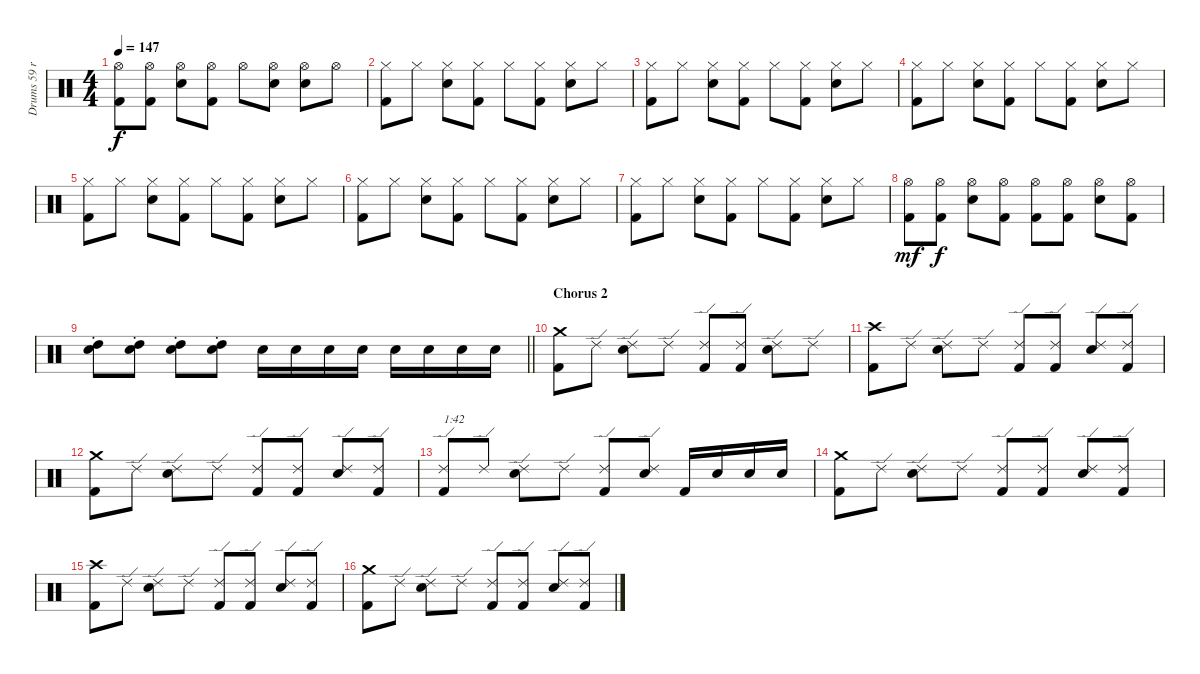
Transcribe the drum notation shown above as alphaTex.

\track ("Drums 59 ride" "Drums 59 r") {mute instrument percussion}
\staff {score}
\articulation defaults
\ts (4 4)
\tempo 147
\clef neutral
\ks c
("Hi-Hat (open)" "Kick (hit) 2").8{dy f} ("Hi-Hat (open)" "Kick (hit) 2").8 ("Hi-Hat (open)" "Snare (hit) 2").8 ("Hi-Hat (open)" "Kick (hit) 2").8 "Hi-Hat (open)".8 ("Hi-Hat (open)" "Snare (hit) 2").8 ("Hi-Hat (open)" "Snare (hit) 2").8 "Hi-Hat (open)".8 |
("Hi-Hat (closed)" "Kick (hit) 2").8 "Hi-Hat (closed)".8 ("Hi-Hat (closed)" "Snare (hit) 2").8 ("Hi-Hat (closed)" "Kick (hit) 2").8 "Hi-Hat (closed)".8 ("Hi-Hat (closed)" "Kick (hit) 2").8 ("Hi-Hat (closed)" "Snare (hit) 2").8 "Hi-Hat (closed)".8 |
("Hi-Hat (closed)" "Kick (hit) 2").8 "Hi-Hat (closed)".8 ("Hi-Hat (closed)" "Snare (hit) 2").8 ("Hi-Hat (closed)" "Kick (hit) 2").8 "Hi-Hat (closed)".8 ("Hi-Hat (closed)" "Kick (hit) 2").8 ("Hi-Hat (closed)" "Snare (hit) 2").8 "Hi-Hat (closed)".8 |
("Hi-Hat (closed)" "Kick (hit) 2").8 "Hi-Hat (closed)".8 ("Hi-Hat (closed)" "Snare (hit) 2").8 ("Hi-Hat (closed)" "Kick (hit) 2").8 "Hi-Hat (closed)".8 ("Hi-Hat (closed)" "Kick (hit) 2").8 ("Hi-Hat (closed)" "Snare (hit) 2").8 "Hi-Hat (closed)".8 |
("Hi-Hat (closed)" "Kick (hit) 2").8 "Hi-Hat (closed)".8 ("Hi-Hat (closed)" "Snare (hit) 2").8 ("Hi-Hat (closed)" "Kick (hit) 2").8 "Hi-Hat (closed)".8 ("Hi-Hat (closed)" "Kick (hit) 2").8 ("Hi-Hat (closed)" "Snare (hit) 2").8 "Hi-Hat (closed)".8 |
("Hi-Hat (closed)" "Kick (hit) 2").8 "Hi-Hat (closed)".8 ("Hi-Hat (closed)" "Snare (hit) 2").8 ("Hi-Hat (closed)" "Kick (hit) 2").8 "Hi-Hat (closed)".8 ("Hi-Hat (closed)" "Kick (hit) 2").8 ("Hi-Hat (closed)" "Snare (hit) 2").8 "Hi-Hat (closed)".8 |
("Hi-Hat (closed)" "Kick (hit) 2").8 "Hi-Hat (closed)".8 ("Hi-Hat (closed)" "Snare (hit) 2").8 ("Hi-Hat (closed)" "Kick (hit) 2").8 "Hi-Hat (closed)".8 ("Hi-Hat (closed)" "Kick (hit) 2").8 ("Hi-Hat (closed)" "Snare (hit) 2").8 "Hi-Hat (closed)".8 |
("Hi-Hat (open)" "Kick (hit) 2").8{dy mf} ("Hi-Hat (open)" "Kick (hit) 2").8{dy f} ("Hi-Hat (open)" "Snare (hit) 2").8 ("Hi-Hat (open)" "Kick (hit) 2").8 ("Hi-Hat (open)" "Kick (hit) 2").8 ("Hi-Hat (open)" "Kick (hit) 2").8 ("Hi-Hat (open)" "Snare (hit) 2").8 ("Hi-Hat (open)" "Kick (hit) 2").8 |
\barLineRight lightlight
("High Tom (hit)" "Snare (hit) 2"{st}).8 ("High Tom (hit)" "Snare (hit) 2"{st}).8 ("High Tom (hit)" "Snare (hit) 2"{st}).8 ("High Tom (hit)" "Snare (hit) 2"{st}).8 "Snare (hit) 2".16 "Snare (hit) 2".16 "Snare (hit) 2".16 "Snare (hit) 2".16 "Snare (hit) 2".16 "Snare (hit) 2".16 "Snare (hit) 2".16 "Snare (hit) 2".16 |
\section ("" "Chorus 2")
("Crash medium (hit)" "Kick (hit) 2").8 "Ride (edge) 2".8 ("Ride (edge) 2" "Snare (hit) 2").8 "Ride (edge) 2".8 ("Ride (edge) 2" "Kick (hit) 2").8 ("Ride (edge) 2" "Kick (hit) 2").8 ("Ride (edge) 2" "Snare (hit) 2").8 "Ride (edge) 2".8 |
("Crash high (hit)" "Kick (hit) 2").8 "Ride (edge) 2".8 ("Ride (edge) 2" "Snare (hit) 2").8 "Ride (edge) 2".8 ("Ride (edge) 2" "Kick (hit) 2").8 ("Ride (edge) 2" "Kick (hit) 2").8 ("Ride (edge) 2" "Snare (hit) 2").8 ("Ride (edge) 2" "Kick (hit) 2").8 |
("Crash medium (hit)" "Kick (hit) 2").8 "Ride (edge) 2".8 ("Ride (edge) 2" "Snare (hit) 2").8 "Ride (edge) 2".8 ("Ride (edge) 2" "Kick (hit) 2").8 ("Ride (edge) 2" "Kick (hit) 2").8 ("Ride (edge) 2" "Snare (hit) 2").8 ("Ride (edge) 2" "Kick (hit) 2").8 |
("Ride (edge) 2" "Kick (hit) 2").8{txt "1:42"} "Ride (edge) 2".8 ("Ride (edge) 2" "Snare (hit) 2").8 "Ride (edge) 2".8 ("Ride (edge) 2" "Kick (hit) 2").8 ("Ride (edge) 2" "Snare (hit) 2").8 "Kick (hit) 2".16 "Snare (hit) 2".16 "Snare (hit) 2".16 "Snare (hit) 2".16 |
("Crash medium (hit)" "Kick (hit) 2").8 "Ride (edge) 2".8 ("Ride (edge) 2" "Snare (hit) 2").8 "Ride (edge) 2".8 ("Ride (edge) 2" "Kick (hit) 2").8 ("Ride (edge) 2" "Kick (hit) 2").8 ("Ride (edge) 2" "Snare (hit) 2").8 ("Ride (edge) 2" "Kick (hit) 2").8 |
("Crash high (hit)" "Kick (hit) 2").8 "Ride (edge) 2".8 ("Ride (edge) 2" "Snare (hit) 2").8 "Ride (edge) 2".8 ("Ride (edge) 2" "Kick (hit) 2").8 ("Ride (edge) 2" "Kick (hit) 2").8 ("Ride (edge) 2" "Snare (hit) 2").8 ("Ride (edge) 2" "Kick (hit) 2").8 |
("Crash medium (hit)" "Kick (hit) 2").8 "Ride (edge) 2".8 ("Ride (edge) 2" "Snare (hit) 2").8 "Ride (edge) 2".8 ("Ride (edge) 2" "Kick (hit) 2").8 ("Ride (edge) 2" "Kick (hit) 2").8 ("Ride (edge) 2" "Snare (hit) 2").8 ("Ride (edge) 2" "Kick (hit) 2").8
